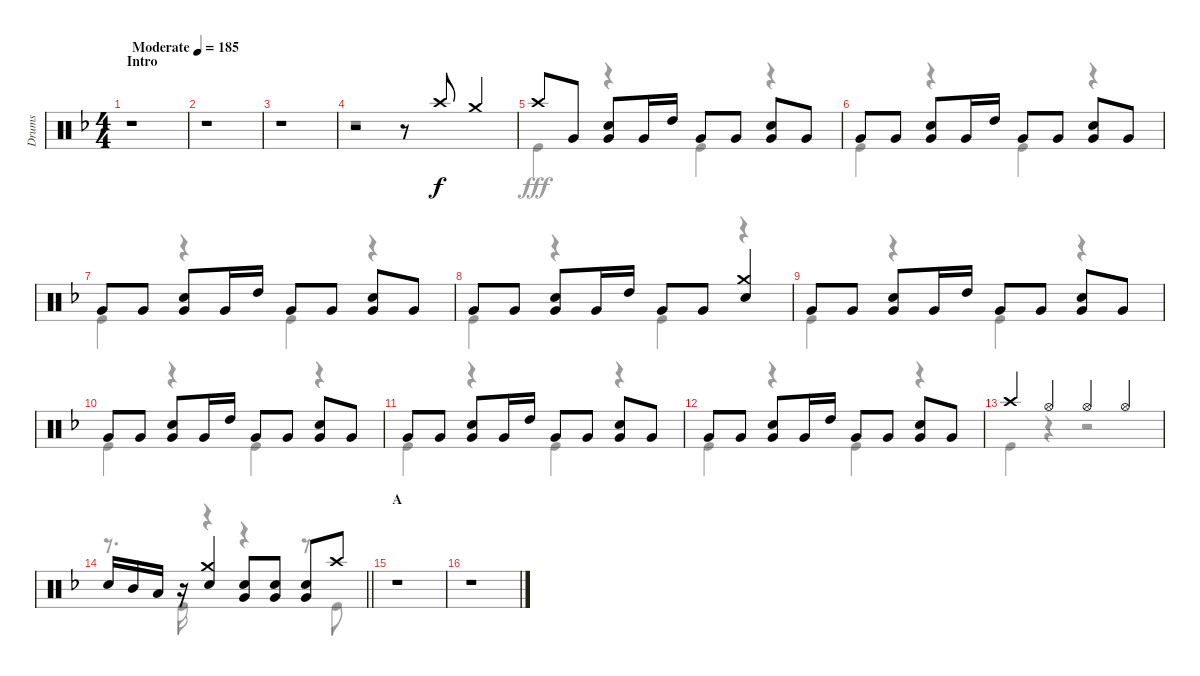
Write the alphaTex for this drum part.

\track ("Drums" "Drums") {instrument percussion}
\staff {score}
\articulation defaults
\voice
\ts (4 4)
\section ("" "Intro")
\tempo (185 "Moderate")
\clef neutral
\ks f
r.1{dy f} |
r.1 |
r.1 |
r.2 r.8 "Crash high (hit)".8 "Crash medium (hit)".4 |
"Crash high (hit)".8 "Very Low Tom (hit)".8 ("Very Low Tom (hit)" "Snare (hit) 2").8 "Very Low Tom (hit)".16 "High Tom (hit)".16 "Very Low Tom (hit)".8 "Very Low Tom (hit)".8 ("Very Low Tom (hit)" "Snare (hit) 2").8 "Very Low Tom (hit)".8 |
"Very Low Tom (hit)".8 "Very Low Tom (hit)".8 ("Very Low Tom (hit)" "Snare (hit) 2").8 "Very Low Tom (hit)".16 "High Tom (hit)".16 "Very Low Tom (hit)".8 "Very Low Tom (hit)".8 ("Very Low Tom (hit)" "Snare (hit) 2").8 "Very Low Tom (hit)".8 |
"Very Low Tom (hit)".8 "Very Low Tom (hit)".8 ("Very Low Tom (hit)" "Snare (hit) 2").8 "Very Low Tom (hit)".16 "High Tom (hit)".16 "Very Low Tom (hit)".8 "Very Low Tom (hit)".8 ("Very Low Tom (hit)" "Snare (hit) 2").8 "Very Low Tom (hit)".8 |
"Very Low Tom (hit)".8 "Very Low Tom (hit)".8 ("Very Low Tom (hit)" "Snare (hit) 2").8 "Very Low Tom (hit)".16 "High Tom (hit)".16 "Very Low Tom (hit)".8 "Very Low Tom (hit)".8 ("Crash medium (hit)" "Snare (hit) 2").4 |
"Very Low Tom (hit)".8 "Very Low Tom (hit)".8 ("Very Low Tom (hit)" "Snare (hit) 2").8 "Very Low Tom (hit)".16 "High Tom (hit)".16 "Very Low Tom (hit)".8 "Very Low Tom (hit)".8 ("Very Low Tom (hit)" "Snare (hit) 2").8 "Very Low Tom (hit)".8 |
"Very Low Tom (hit)".8 "Very Low Tom (hit)".8 ("Very Low Tom (hit)" "Snare (hit) 2").8 "Very Low Tom (hit)".16 "High Tom (hit)".16 "Very Low Tom (hit)".8 "Very Low Tom (hit)".8 ("Very Low Tom (hit)" "Snare (hit) 2").8 "Very Low Tom (hit)".8 |
"Very Low Tom (hit)".8 "Very Low Tom (hit)".8 ("Very Low Tom (hit)" "Snare (hit) 2").8 "Very Low Tom (hit)".16 "High Tom (hit)".16 "Very Low Tom (hit)".8 "Very Low Tom (hit)".8 ("Very Low Tom (hit)" "Snare (hit) 2").8 "Very Low Tom (hit)".8 |
"Very Low Tom (hit)".8 "Very Low Tom (hit)".8 ("Very Low Tom (hit)" "Snare (hit) 2").8 "Very Low Tom (hit)".16 "High Tom (hit)".16 "Very Low Tom (hit)".8 "Very Low Tom (hit)".8 ("Very Low Tom (hit)" "Snare (hit) 2").8 "Very Low Tom (hit)".8 |
"Crash high (hit)".4 "Hi-Hat (open)".4 "Hi-Hat (open)".4 "Hi-Hat (open)".4 |
\barLineRight lightlight "Snare (hit) 2".16 "Mid Tom (hit)".16 "Low Tom (hit)".16
r.16 ("Crash medium (hit)" "Snare (hit) 2").4 ("Snare (hit) 2" "Very Low Tom (hit)").8 ("Snare (hit) 2" "Very Low Tom (hit)").8 ("Snare (hit) 2" "Very Low Tom (hit)").8 "Crash high (hit)".8 |
\section ("" "A")
r.1 |
r.1
\voice
\clef neutral
\ottava regular
\simile none
\ks f
r.1{dy fff} |
r.1 |
r.1 |
r.1 |
"Kick (hit)".4 r.4 "Kick (hit)".4 r.4 |
"Kick (hit)".4 r.4 "Kick (hit)".4 r.4 |
"Kick (hit)".4 r.4 "Kick (hit)".4 r.4 |
"Kick (hit)".4 r.4 "Kick (hit)".4 r.4 |
"Kick (hit)".4 r.4 "Kick (hit)".4 r.4 |
"Kick (hit)".4 r.4 "Kick (hit)".4 r.4 |
"Kick (hit)".4 r.4 "Kick (hit)".4 r.4 |
"Kick (hit)".4 r.4 "Kick (hit)".4 r.4 |
"Kick (hit)".4 r.4 r.2 |
\barLineRight lightlight
r.8{d} "Kick (hit)".16 r.4 r.4 r.8 "Kick (hit)".8 |
r.1 |
r.1
